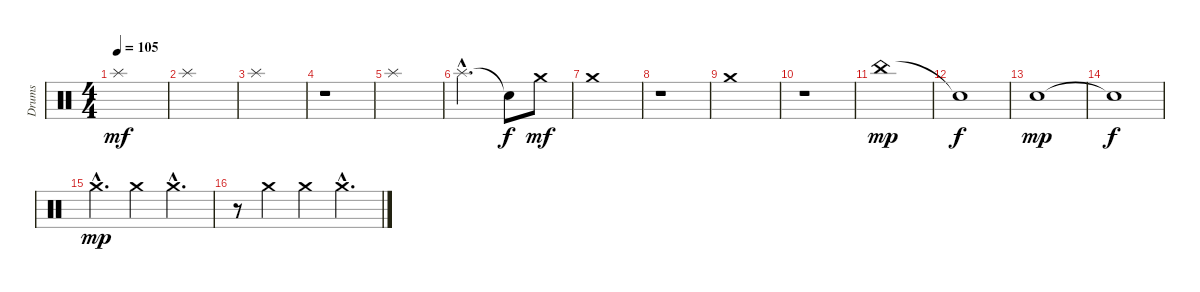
\track ("Drums" "Drums") {instrument percussion}
\staff {score}
\articulation defaults
\ts (4 4)
\tempo 105
\clef neutral
\ks c "Splash (hit)".1{dy mf}
|
"Splash (hit)".1 |
"Splash (hit)".1 |
r.1 |
"Splash (hit)".1 |
"Splash (hit)"{hac}.2{d} "Snare (hit)"{t}.8{dy f} "Crash medium (hit)".8{dy mf} |
"Crash medium (hit)".1 |
r.1 |
"Crash medium (hit)".1 |
r.1 |
"China (hit)".1{dy mp} |
"Snare (hit)"{t}.1{dy f} |
"Electric Snare (hit)".1{dy mp} |
"Snare (hit)"{t}.1{dy f} |
"Crash medium (hit)"{hac}.4{d dy mp} "Crash medium (hit)".4 "Crash medium (hit)"{hac}.4{d} |
r.8 "Crash medium (hit)".4 "Crash medium (hit)".4 "Crash medium (hit)"{hac}.4{d}
